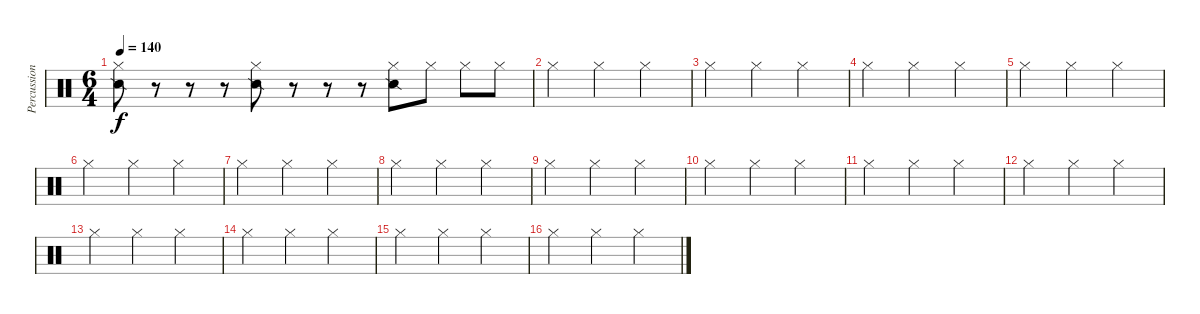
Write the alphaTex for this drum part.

\track ("Percussions" "Percussion") {instrument percussion}
\staff {score}
\articulation defaults
\ts (6 4)
\tempo 140
\clef neutral
\ks c
("Snare (side stick) 2" "Hi-Hat (closed)").8{dy f} r.8 r.8 r.8 ("Snare (side stick) 2" "Hi-Hat (closed)").8 r.8 r.8 r.8 ("Snare (side stick) 2" "Hi-Hat (closed)").8 "Hi-Hat (closed)".8 "Hi-Hat (closed)".8 "Hi-Hat (closed)".8 |
"Hi-Hat (closed)".2 "Hi-Hat (closed)".2 "Hi-Hat (closed)".2 |
"Hi-Hat (closed)".2 "Hi-Hat (closed)".2 "Hi-Hat (closed)".2 |
"Hi-Hat (closed)".2 "Hi-Hat (closed)".2 "Hi-Hat (closed)".2 |
"Hi-Hat (closed)".2 "Hi-Hat (closed)".2 "Hi-Hat (closed)".2 |
"Hi-Hat (closed)".2 "Hi-Hat (closed)".2 "Hi-Hat (closed)".2 |
"Hi-Hat (closed)".2 "Hi-Hat (closed)".2 "Hi-Hat (closed)".2 |
"Hi-Hat (closed)".2 "Hi-Hat (closed)".2 "Hi-Hat (closed)".2 |
"Hi-Hat (closed)".2 "Hi-Hat (closed)".2 "Hi-Hat (closed)".2 |
"Hi-Hat (closed)".2 "Hi-Hat (closed)".2 "Hi-Hat (closed)".2 |
"Hi-Hat (closed)".2 "Hi-Hat (closed)".2 "Hi-Hat (closed)".2 |
"Hi-Hat (closed)".2 "Hi-Hat (closed)".2 "Hi-Hat (closed)".2 |
"Hi-Hat (closed)".2 "Hi-Hat (closed)".2 "Hi-Hat (closed)".2 |
"Hi-Hat (closed)".2 "Hi-Hat (closed)".2 "Hi-Hat (closed)".2 |
"Hi-Hat (closed)".2 "Hi-Hat (closed)".2 "Hi-Hat (closed)".2 |
"Hi-Hat (closed)".2 "Hi-Hat (closed)".2 "Hi-Hat (closed)".2
